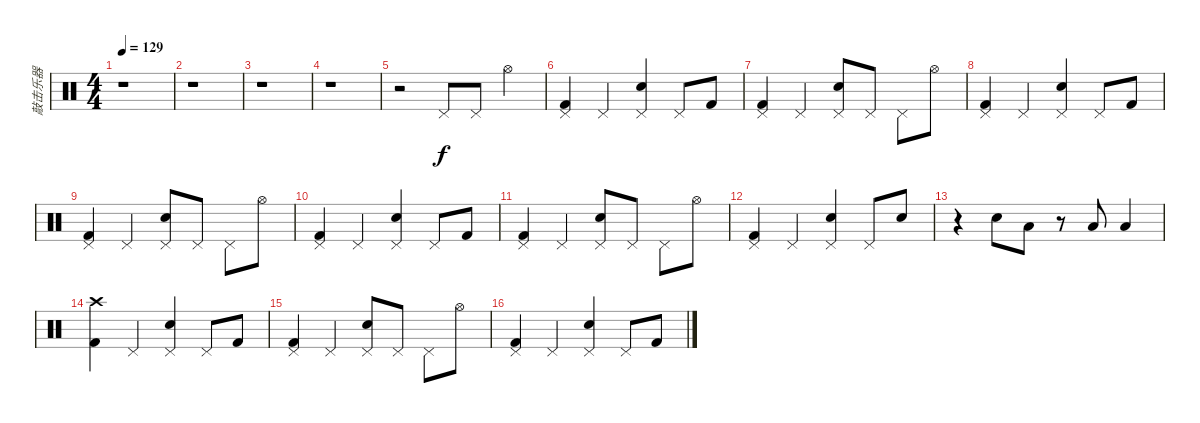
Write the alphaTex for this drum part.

\track ("敲击乐器" "敲击乐器") {instrument percussion}
\staff {score}
\articulation defaults
\ts (4 4)
\tempo 129
\clef neutral
\ks c
r.1{dy f} |
r.1 |
r.1 |
r.1 |
r.2 "Pedal Hi-Hat (hit)".8 "Pedal Hi-Hat (hit)".8 "Hi-Hat (open)".4 |
("Pedal Hi-Hat (hit)" "Kick (hit) 2").4 "Pedal Hi-Hat (hit)".4 ("Pedal Hi-Hat (hit)" "Snare (hit) 2").4 "Pedal Hi-Hat (hit)".8 "Kick (hit) 2".8 |
("Pedal Hi-Hat (hit)" "Kick (hit) 2").4 "Pedal Hi-Hat (hit)".4 ("Pedal Hi-Hat (hit)" "Snare (hit) 2").8 "Pedal Hi-Hat (hit)".8 "Pedal Hi-Hat (hit)".8 "Hi-Hat (open)".8 |
("Pedal Hi-Hat (hit)" "Kick (hit) 2").4 "Pedal Hi-Hat (hit)".4 ("Pedal Hi-Hat (hit)" "Snare (hit) 2").4 "Pedal Hi-Hat (hit)".8 "Kick (hit) 2".8 |
("Pedal Hi-Hat (hit)" "Kick (hit) 2").4 "Pedal Hi-Hat (hit)".4 ("Pedal Hi-Hat (hit)" "Snare (hit) 2").8 "Pedal Hi-Hat (hit)".8 "Pedal Hi-Hat (hit)".8 "Hi-Hat (open)".8 |
("Pedal Hi-Hat (hit)" "Kick (hit) 2").4 "Pedal Hi-Hat (hit)".4 ("Pedal Hi-Hat (hit)" "Snare (hit) 2").4 "Pedal Hi-Hat (hit)".8 "Kick (hit) 2".8 |
("Pedal Hi-Hat (hit)" "Kick (hit) 2").4 "Pedal Hi-Hat (hit)".4 ("Pedal Hi-Hat (hit)" "Snare (hit) 2").8 "Pedal Hi-Hat (hit)".8 "Pedal Hi-Hat (hit)".8 "Hi-Hat (open)".8 |
("Pedal Hi-Hat (hit)" "Kick (hit) 2").4 "Pedal Hi-Hat (hit)".4 ("Pedal Hi-Hat (hit)" "Snare (hit) 2").4 "Pedal Hi-Hat (hit)".8 "Snare (hit) 2".8 |
r.4 "Snare (hit) 2".8 "Low Tom (hit)".8 r.8 "Low Tom (hit)".8 "Low Tom (hit)".4 |
("Crash high (hit)" "Kick (hit) 2").4 "Pedal Hi-Hat (hit)".4 ("Pedal Hi-Hat (hit)" "Snare (hit) 2").4 "Pedal Hi-Hat (hit)".8 "Kick (hit) 2".8 |
("Pedal Hi-Hat (hit)" "Kick (hit) 2").4 "Pedal Hi-Hat (hit)".4 ("Pedal Hi-Hat (hit)" "Snare (hit) 2").8 "Pedal Hi-Hat (hit)".8 "Pedal Hi-Hat (hit)".8 "Hi-Hat (open)".8 |
("Pedal Hi-Hat (hit)" "Kick (hit) 2").4 "Pedal Hi-Hat (hit)".4 ("Pedal Hi-Hat (hit)" "Snare (hit) 2").4 "Pedal Hi-Hat (hit)".8 "Kick (hit) 2".8
